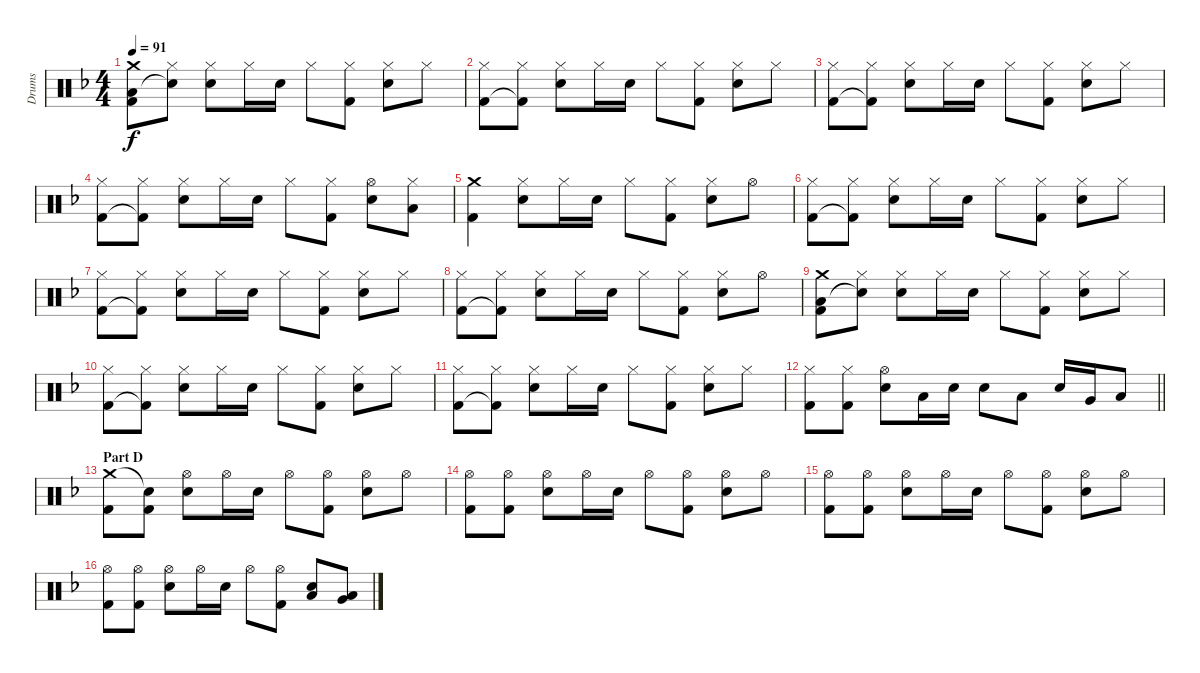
\track ("Drums" "Drums") {instrument percussion}
\staff {score}
\articulation defaults
\ts (4 4)
\tempo 91
\clef neutral
\ks f
("Crash medium (hit)" "Low Floor Tom (hit)" "Kick (hit) 2").8{dy f} ("Hi-Hat (closed)" "Snare (hit)"{t}).8 ("Hi-Hat (closed)" "Electric Snare (hit)").8 "Hi-Hat (closed)".16 "Electric Snare (hit)".16 "Hi-Hat (closed)".8 ("Hi-Hat (closed)" "Kick (hit) 2").8 ("Hi-Hat (closed)" "Electric Snare (hit)").8 "Hi-Hat (closed)".8 |
("Hi-Hat (closed)" "Kick (hit) 2").8 ("Hi-Hat (closed)" "Kick (hit) 2"{t}).8 ("Hi-Hat (closed)" "Electric Snare (hit)").8 "Hi-Hat (closed)".16 "Electric Snare (hit)".16 "Hi-Hat (closed)".8 ("Hi-Hat (closed)" "Kick (hit) 2").8 ("Hi-Hat (closed)" "Electric Snare (hit)").8 "Hi-Hat (closed)".8 |
("Hi-Hat (closed)" "Kick (hit) 2").8 ("Hi-Hat (closed)" "Kick (hit) 2"{t}).8 ("Hi-Hat (closed)" "Electric Snare (hit)").8 "Hi-Hat (closed)".16 "Electric Snare (hit)".16 "Hi-Hat (closed)".8 ("Hi-Hat (closed)" "Kick (hit) 2").8 ("Hi-Hat (closed)" "Electric Snare (hit)").8 "Hi-Hat (closed)".8 |
("Hi-Hat (closed)" "Kick (hit) 2").8 ("Hi-Hat (closed)" "Kick (hit) 2"{t}).8 ("Hi-Hat (closed)" "Electric Snare (hit)").8 "Hi-Hat (closed)".16 "Electric Snare (hit)".16 "Hi-Hat (closed)".8 ("Hi-Hat (closed)" "Kick (hit) 2").8 ("Hi-Hat (open)" "Electric Snare (hit)").8 ("Hi-Hat (closed)" "Low Floor Tom (hit)").8 |
("Crash medium (hit)" "Kick (hit) 2").4 ("Hi-Hat (closed)" "Electric Snare (hit)").8 "Hi-Hat (closed)".16 "Electric Snare (hit)".16 "Hi-Hat (closed)".8 ("Hi-Hat (closed)" "Kick (hit) 2").8 ("Hi-Hat (closed)" "Electric Snare (hit)").8 "Hi-Hat (open)".8 |
("Hi-Hat (closed)" "Kick (hit) 2").8 ("Hi-Hat (closed)" "Kick (hit) 2"{t}).8 ("Hi-Hat (closed)" "Electric Snare (hit)").8 "Hi-Hat (closed)".16 "Electric Snare (hit)".16 "Hi-Hat (closed)".8 ("Hi-Hat (closed)" "Kick (hit) 2").8 ("Hi-Hat (closed)" "Electric Snare (hit)").8 "Hi-Hat (closed)".8 |
("Hi-Hat (closed)" "Kick (hit) 2").8 ("Hi-Hat (closed)" "Kick (hit) 2"{t}).8 ("Hi-Hat (closed)" "Electric Snare (hit)").8 "Hi-Hat (closed)".16 "Electric Snare (hit)".16 "Hi-Hat (closed)".8 ("Hi-Hat (closed)" "Kick (hit) 2").8 ("Hi-Hat (closed)" "Electric Snare (hit)").8 "Hi-Hat (closed)".8 |
("Hi-Hat (closed)" "Kick (hit) 2").8 ("Hi-Hat (closed)" "Kick (hit) 2"{t}).8 ("Hi-Hat (closed)" "Electric Snare (hit)").8 "Hi-Hat (closed)".16 "Electric Snare (hit)".16 "Hi-Hat (closed)".8 ("Hi-Hat (closed)" "Kick (hit) 2").8 ("Hi-Hat (closed)" "Electric Snare (hit)").8 "Hi-Hat (open)".8 |
("Crash medium (hit)" "Low Floor Tom (hit)" "Kick (hit) 2").8 ("Hi-Hat (closed)" "Snare (hit)"{t}).8 ("Hi-Hat (closed)" "Electric Snare (hit)").8 "Hi-Hat (closed)".16 "Electric Snare (hit)".16 "Hi-Hat (closed)".8 ("Hi-Hat (closed)" "Kick (hit) 2").8 ("Hi-Hat (closed)" "Electric Snare (hit)").8 "Hi-Hat (closed)".8 |
("Hi-Hat (closed)" "Kick (hit) 2").8 ("Hi-Hat (closed)" "Kick (hit) 2"{t}).8 ("Hi-Hat (closed)" "Electric Snare (hit)").8 "Hi-Hat (closed)".16 "Electric Snare (hit)".16 "Hi-Hat (closed)".8 ("Hi-Hat (closed)" "Kick (hit) 2").8 ("Hi-Hat (closed)" "Electric Snare (hit)").8 "Hi-Hat (closed)".8 |
("Hi-Hat (closed)" "Kick (hit) 2").8 ("Hi-Hat (closed)" "Kick (hit) 2"{t}).8 ("Hi-Hat (closed)" "Electric Snare (hit)").8 "Hi-Hat (closed)".16 "Electric Snare (hit)".16 "Hi-Hat (closed)".8 ("Hi-Hat (closed)" "Kick (hit) 2").8 ("Hi-Hat (closed)" "Electric Snare (hit)").8 "Hi-Hat (closed)".8 |
\barLineRight lightlight
("Hi-Hat (closed)" "Kick (hit) 2").8 ("Hi-Hat (closed)" "Kick (hit) 2").8 ("Hi-Hat (open)" "Electric Snare (hit)").8 "Low Tom (hit)".16 "Electric Snare (hit)".16 "Electric Snare (hit)".8 "Low Tom (hit)".8 "Electric Snare (hit)".16 "Very Low Tom (hit)".16 "Low Floor Tom (hit)".8 |
\section ("" "Part D")
("Crash medium (hit)" "Kick (hit) 2").8 ("Snare (hit)"{t} "Kick (hit) 2").8 ("Hi-Hat (open)" "Electric Snare (hit)").8 "Hi-Hat (open)".16 "Electric Snare (hit)".16 "Hi-Hat (open)".8 ("Hi-Hat (open)" "Kick (hit) 2").8 ("Hi-Hat (open)" "Electric Snare (hit)").8 "Hi-Hat (open)".8 |
("Hi-Hat (open)" "Kick (hit) 2").8 ("Hi-Hat (open)" "Kick (hit) 2").8 ("Hi-Hat (open)" "Electric Snare (hit)").8 "Hi-Hat (open)".16 "Electric Snare (hit)".16 "Hi-Hat (open)".8 ("Hi-Hat (open)" "Kick (hit) 2").8 ("Hi-Hat (open)" "Electric Snare (hit)").8 "Hi-Hat (open)".8 |
("Hi-Hat (open)" "Kick (hit) 2").8 ("Hi-Hat (open)" "Kick (hit) 2").8 ("Hi-Hat (open)" "Electric Snare (hit)").8 "Hi-Hat (open)".16 "Electric Snare (hit)".16 "Hi-Hat (open)".8 ("Hi-Hat (open)" "Kick (hit) 2").8 ("Hi-Hat (open)" "Electric Snare (hit)").8 "Hi-Hat (open)".8 |
("Hi-Hat (open)" "Kick (hit) 2").8 ("Hi-Hat (open)" "Kick (hit) 2").8 ("Hi-Hat (open)" "Electric Snare (hit)").8 "Hi-Hat (open)".16 "Electric Snare (hit)".16 "Hi-Hat (open)".8 ("Hi-Hat (open)" "Kick (hit) 2").8 ("Electric Snare (hit)" "Low Tom (hit)").8 ("Very Low Tom (hit)" "Low Floor Tom (hit)").8
